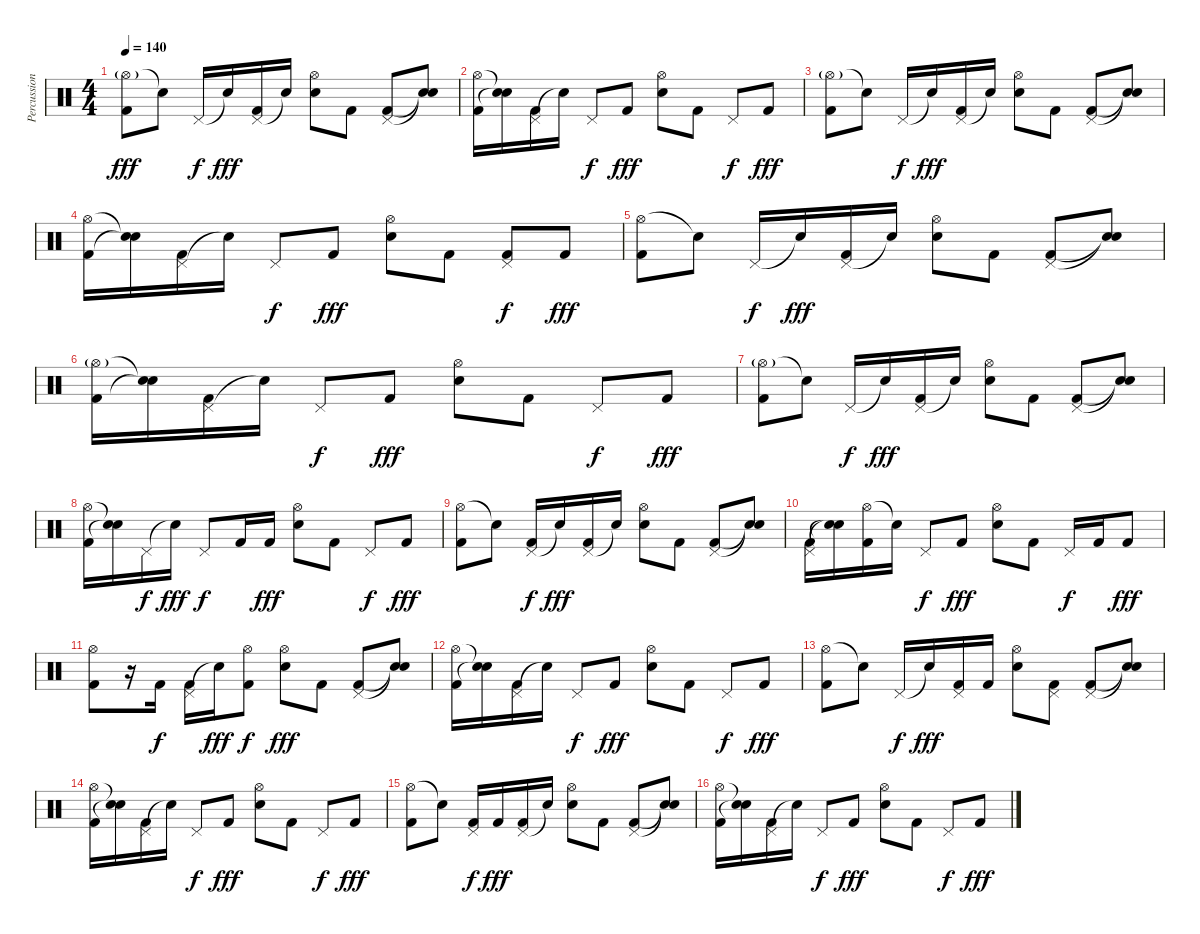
\track ("Percussion" "Percussion") {instrument percussion}
\staff {score}
\articulation defaults
\ts (4 4)
\tempo 140
\clef neutral
\ks c
("Hi-Hat (open)"{g} "Kick (hit) 2").8{dy fff} "Snare (hit)"{t}.8 "Pedal Hi-Hat (hit)".16{dy f} "Snare (hit)"{t}.16{dy fff} ("Pedal Hi-Hat (hit)" "Kick (hit) 2").16 "Snare (hit)"{t}.16 ("Hi-Hat (open)" "Electric Snare (hit)").8 "Kick (hit) 2".8 ("Pedal Hi-Hat (hit)" "Kick (hit) 2").8 ("Snare (hit)"{t} "Snare (hit)"{t}).8 |
("Hi-Hat (open)" "Kick (hit) 2").16 ("Snare (hit)"{t} "Snare (hit)"{t}).16 ("Pedal Hi-Hat (hit)" "Kick (hit) 2").16 "Snare (hit)"{t}.16 "Pedal Hi-Hat (hit)".8{dy f} "Kick (hit) 2".8{dy fff} ("Hi-Hat (open)" "Electric Snare (hit)").8 "Kick (hit) 2".8 "Pedal Hi-Hat (hit)".8{dy f} "Kick (hit) 2".8{dy fff} |
("Hi-Hat (open)"{g} "Kick (hit) 2").8 "Snare (hit)"{t}.8 "Pedal Hi-Hat (hit)".16{dy f} "Snare (hit)"{t}.16{dy fff} ("Pedal Hi-Hat (hit)" "Kick (hit) 2").16 "Snare (hit)"{t}.16 ("Hi-Hat (open)" "Electric Snare (hit)").8 "Kick (hit) 2".8 ("Pedal Hi-Hat (hit)" "Kick (hit) 2").8 ("Snare (hit)"{t} "Snare (hit)"{t}).8 |
("Hi-Hat (open)" "Kick (hit) 2").16 ("Snare (hit)"{t} "Snare (hit)"{t}).16 ("Pedal Hi-Hat (hit)" "Kick (hit) 2").16 "Snare (hit)"{t}.16 "Pedal Hi-Hat (hit)".8{dy f} "Kick (hit) 2".8{dy fff} ("Hi-Hat (open)" "Electric Snare (hit)").8 "Kick (hit) 2".8 ("Pedal Hi-Hat (hit)" "Kick (hit) 2").8{dy f} "Kick (hit) 2".8{dy fff} |
("Hi-Hat (open)" "Kick (hit) 2").8 "Snare (hit)"{t}.8 "Pedal Hi-Hat (hit)".16{dy f} "Snare (hit)"{t}.16{dy fff} ("Pedal Hi-Hat (hit)" "Kick (hit) 2").16 "Snare (hit)"{t}.16 ("Hi-Hat (open)" "Electric Snare (hit)").8 "Kick (hit) 2".8 ("Pedal Hi-Hat (hit)" "Kick (hit) 2").8 ("Snare (hit)"{t} "Snare (hit)"{t}).8 |
("Hi-Hat (open)"{g} "Kick (hit) 2").16 ("Snare (hit)"{t} "Snare (hit)"{t}).16 ("Pedal Hi-Hat (hit)" "Kick (hit) 2").16 "Snare (hit)"{t}.16 "Pedal Hi-Hat (hit)".8{dy f} "Kick (hit) 2".8{dy fff} ("Hi-Hat (open)" "Electric Snare (hit)").8 "Kick (hit) 2".8 "Pedal Hi-Hat (hit)".8{dy f} "Kick (hit) 2".8{dy fff} |
("Hi-Hat (open)"{g} "Kick (hit) 2").8 "Snare (hit)"{t}.8 "Pedal Hi-Hat (hit)".16{dy f} "Snare (hit)"{t}.16{dy fff} ("Pedal Hi-Hat (hit)" "Kick (hit) 2").16 "Snare (hit)"{t}.16 ("Hi-Hat (open)" "Electric Snare (hit)").8 "Kick (hit) 2".8 ("Pedal Hi-Hat (hit)" "Kick (hit) 2").8 ("Snare (hit)"{t} "Snare (hit)"{t}).8 |
("Hi-Hat (open)" "Kick (hit) 2").16 ("Snare (hit)"{t} "Snare (hit)"{t}).16 "Pedal Hi-Hat (hit)".16{dy f} "Snare (hit)"{t}.16{dy fff} "Pedal Hi-Hat (hit)".8{dy f} "Kick (hit) 2".16 "Kick (hit) 2".16{dy fff} ("Hi-Hat (open)" "Electric Snare (hit)").8 "Kick (hit) 2".8 "Pedal Hi-Hat (hit)".8{dy f} "Kick (hit) 2".8{dy fff} |
("Hi-Hat (open)" "Kick (hit) 2").8 "Snare (hit)"{t}.8 ("Pedal Hi-Hat (hit)" "Kick (hit) 2").16{dy f} "Snare (hit)"{t}.16{dy fff} ("Pedal Hi-Hat (hit)" "Kick (hit) 2").16 "Snare (hit)"{t}.16 ("Hi-Hat (open)" "Electric Snare (hit)").8 "Kick (hit) 2".8 ("Pedal Hi-Hat (hit)" "Kick (hit) 2").8 ("Snare (hit)"{t} "Snare (hit)"{t}).8 |
("Pedal Hi-Hat (hit)" "Kick (hit) 2").16 ("Snare (hit)"{t} "Snare (hit)"{t}).16 ("Hi-Hat (open)" "Kick (hit) 2").16 "Snare (hit)"{t}.16 "Pedal Hi-Hat (hit)".8{dy f} "Kick (hit) 2".8{dy fff} ("Hi-Hat (open)" "Electric Snare (hit)").8 "Kick (hit) 2".8 "Pedal Hi-Hat (hit)".16{dy f} "Kick (hit) 2".16 "Kick (hit) 2".8{dy fff} |
("Hi-Hat (open)" "Kick (hit) 2").8 r.16 "Kick (hit) 2".16{dy f} ("Pedal Hi-Hat (hit)" "Kick (hit) 2").16 "Snare (hit)"{t}.16{dy fff} ("Hi-Hat (open)" "Kick (hit) 2").8{dy f} ("Hi-Hat (open)" "Electric Snare (hit)").8{dy fff} "Kick (hit) 2".8 ("Pedal Hi-Hat (hit)" "Kick (hit) 2").8 ("Snare (hit)"{t} "Snare (hit)"{t}).8 |
("Hi-Hat (open)" "Kick (hit) 2").16 ("Snare (hit)"{t} "Snare (hit)"{t}).16 ("Pedal Hi-Hat (hit)" "Kick (hit) 2").16 "Snare (hit)"{t}.16 "Pedal Hi-Hat (hit)".8{dy f} "Kick (hit) 2".8{dy fff} ("Hi-Hat (open)" "Electric Snare (hit)").8 "Kick (hit) 2".8 "Pedal Hi-Hat (hit)".8{dy f} "Kick (hit) 2".8{dy fff} |
("Hi-Hat (open)" "Kick (hit) 2").8 "Snare (hit)"{t}.8 "Pedal Hi-Hat (hit)".16{dy f} "Snare (hit)"{t}.16{dy fff} ("Pedal Hi-Hat (hit)" "Kick (hit) 2").16 "Kick (hit) 2".16 ("Hi-Hat (open)" "Electric Snare (hit)").8 ("Pedal Hi-Hat (hit)" "Kick (hit) 2").8 ("Pedal Hi-Hat (hit)" "Kick (hit) 2").8 ("Snare (hit)"{t} "Snare (hit)"{t}).8 |
("Hi-Hat (open)" "Kick (hit) 2").16 ("Snare (hit)"{t} "Snare (hit)"{t}).16 ("Pedal Hi-Hat (hit)" "Kick (hit) 2").16 "Snare (hit)"{t}.16 "Pedal Hi-Hat (hit)".8{dy f} "Kick (hit) 2".8{dy fff} ("Hi-Hat (open)" "Electric Snare (hit)").8 "Kick (hit) 2".8 "Pedal Hi-Hat (hit)".8{dy f} "Kick (hit) 2".8{dy fff} |
("Hi-Hat (open)" "Kick (hit) 2").8 "Snare (hit)"{t}.8 ("Pedal Hi-Hat (hit)" "Kick (hit) 2").16{dy f} "Kick (hit) 2".16{dy fff} ("Pedal Hi-Hat (hit)" "Kick (hit) 2").16 "Snare (hit)"{t}.16 ("Hi-Hat (open)" "Electric Snare (hit)").8 "Kick (hit) 2".8 ("Pedal Hi-Hat (hit)" "Kick (hit) 2").8 ("Snare (hit)"{t} "Snare (hit)"{t}).8 |
("Hi-Hat (open)" "Kick (hit) 2").16 ("Snare (hit)"{t} "Snare (hit)"{t}).16 ("Pedal Hi-Hat (hit)" "Kick (hit) 2").16 "Snare (hit)"{t}.16 "Pedal Hi-Hat (hit)".8{dy f} "Kick (hit) 2".8{dy fff} ("Hi-Hat (open)" "Electric Snare (hit)").8 "Kick (hit) 2".8 "Pedal Hi-Hat (hit)".8{dy f} "Kick (hit) 2".8{dy fff}
